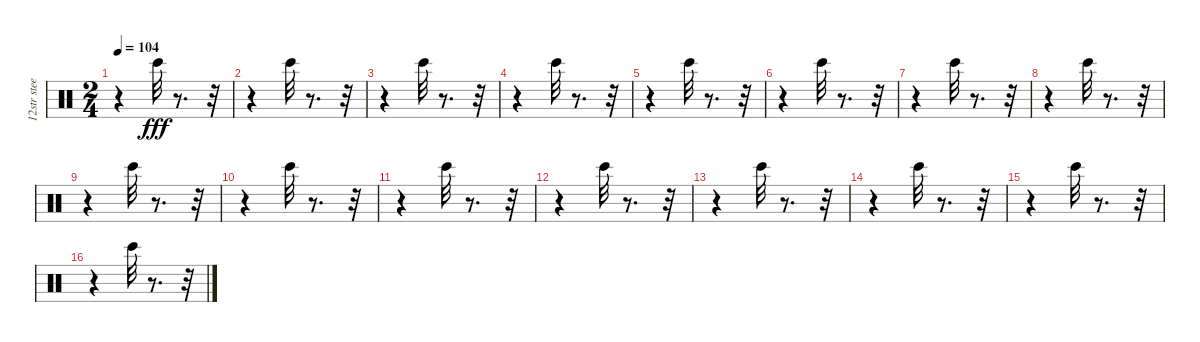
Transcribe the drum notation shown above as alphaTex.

\track ("12str steel mute " "12str stee") {instrument percussion}
\staff {score}
\articulation defaults
\ts (2 4)
\tempo 104
\clef neutral
\ks c
r.4{dy fff} "Bongo High (hit)".32 r.8{d} r.32 |
r.4 "Bongo High (hit)".32 r.8{d} r.32 |
r.4 "Bongo High (hit)".32 r.8{d} r.32 |
r.4 "Bongo High (hit)".32 r.8{d} r.32 |
r.4 "Bongo High (hit)".32 r.8{d} r.32 |
r.4 "Bongo High (hit)".32 r.8{d} r.32 |
r.4 "Bongo High (hit)".32 r.8{d} r.32 |
r.4 "Bongo High (hit)".32 r.8{d} r.32 |
r.4 "Bongo High (hit)".32 r.8{d} r.32 |
r.4 "Bongo High (hit)".32 r.8{d} r.32 |
r.4 "Bongo High (hit)".32 r.8{d} r.32 |
r.4 "Bongo High (hit)".32 r.8{d} r.32 |
r.4 "Bongo High (hit)".32 r.8{d} r.32 |
r.4 "Bongo High (hit)".32 r.8{d} r.32 |
r.4 "Bongo High (hit)".32 r.8{d} r.32 |
r.4 "Bongo High (hit)".32 r.8{d} r.32
